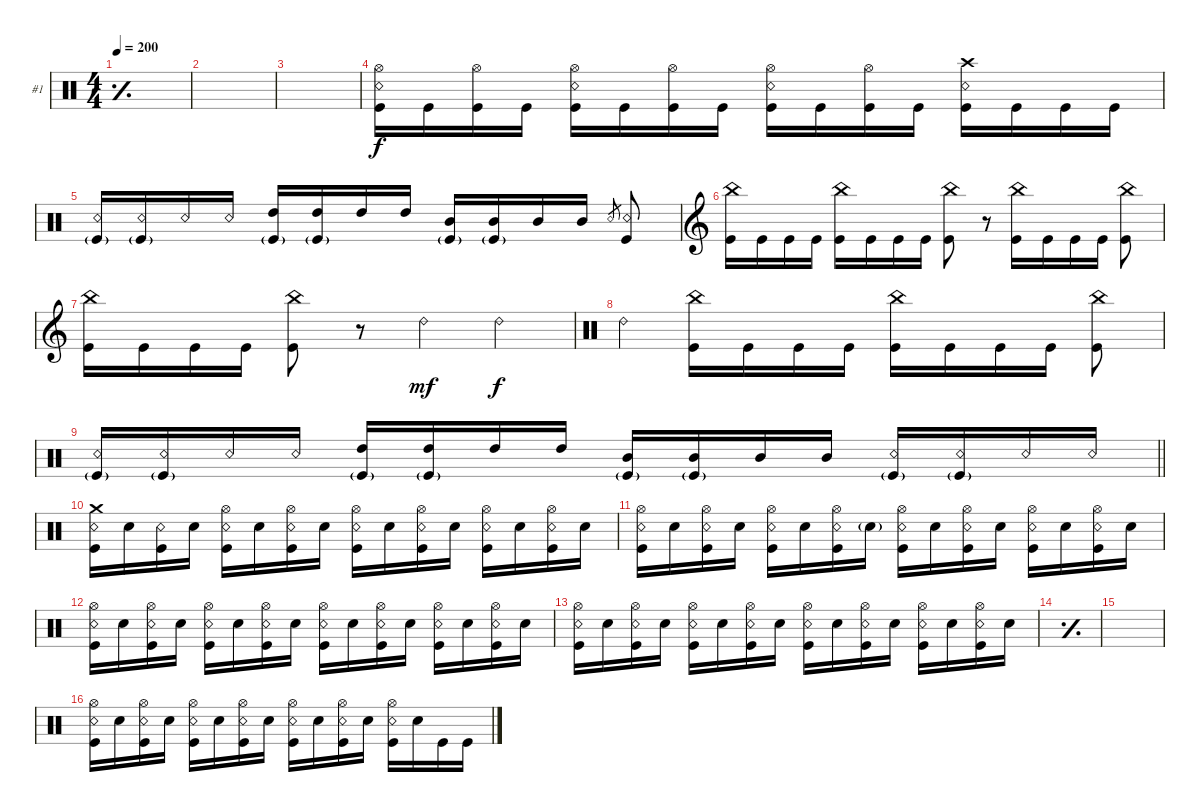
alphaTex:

\bracketExtendMode groupsimilarinstruments
\firstSystemTrackNameOrientation horizontal
\otherSystemsTrackNameOrientation horizontal
\track ("Joey Jordison" "#1") {instrument percussion}
\staff {score}
\articulation defaults
\ts (4 4)
\tempo 200
\clef neutral
\simile simple
\ks c
|
|
|
("Kick (hit)" "Snare (rim shot)" "Hi-Hat (open)").16 "Kick (hit)".16 ("Kick (hit)" "Hi-Hat (open)").16 "Kick (hit)".16 ("Kick (hit)" "Snare (rim shot)" "Hi-Hat (open)").16 "Kick (hit)".16 ("Kick (hit)" "Hi-Hat (open)").16 "Kick (hit)".16 ("Kick (hit)" "Snare (rim shot)" "Hi-Hat (open)").16 "Kick (hit)".16 ("Kick (hit)" "Hi-Hat (open)").16 "Kick (hit)".16 ("Kick (hit)" "Snare (rim shot)" "Crash high (hit)").16 "Kick (hit)".16 "Kick (hit)".16 "Kick (hit)".16 |
("Snare (rim shot)" "Kick (hit)"{g}).16 ("Snare (rim shot)" "Kick (hit)"{g}).16 "Snare (rim shot)".16 "Snare (rim shot)".16 ("High Tom (hit)" "Kick (hit)"{g}).16 ("High Tom (hit)" "Kick (hit)"{g}).16 "High Tom (hit)".16 "High Tom (hit)".16 ("Mid Tom (hit)" "Kick (hit)"{g}).16 ("Mid Tom (hit)" "Kick (hit)"{g}).16 "Mid Tom (hit)".16 "Mid Tom (hit)".16 "Snare (rim shot)".8{gr} ("Snare (rim shot)" "Kick (hit)").8 |
\clef g2
("Kick (hit)" "China (hit)").16 "Kick (hit)".16 "Kick (hit)".16 "Kick (hit)".16 ("Kick (hit)" "China (hit)").16 "Kick (hit)".16 "Kick (hit)".16 "Kick (hit)".16 ("Kick (hit)" "China (hit)").8 r.8 ("Kick (hit)" "China (hit)").16 "Kick (hit)".16 "Kick (hit)".16 "Kick (hit)".16 ("Kick (hit)" "China (hit)").8 |
("Kick (hit)" "China (hit)").16 "Kick (hit)".16 "Kick (hit)".16 "Kick (hit)".16 ("Kick (hit)" "China (hit)").8 r.8 "Ride (bell) 2".4{dy mf} "Ride (bell) 2".4{dy f} |
\clef neutral "Ride (bell) 2".4
("Kick (hit)" "China (hit)").16 "Kick (hit)".16 "Kick (hit)".16 "Kick (hit)".16 ("Kick (hit)" "China (hit)").16 "Kick (hit)".16 "Kick (hit)".16 "Kick (hit)".16 ("Kick (hit)" "China (hit)").8 |
\barLineRight lightlight
("Snare (rim shot)" "Kick (hit)"{g}).16 ("Snare (rim shot)" "Kick (hit)"{g}).16 "Snare (rim shot)".16 "Snare (rim shot)".16 ("High Tom (hit)" "Kick (hit)"{g}).16 ("High Tom (hit)" "Kick (hit)"{g}).16 "High Tom (hit)".16 "High Tom (hit)".16 ("Mid Tom (hit)" "Kick (hit)"{g}).16 ("Mid Tom (hit)" "Kick (hit)"{g}).16 "Mid Tom (hit)".16 "Mid Tom (hit)".16 ("Snare (rim shot)" "Kick (hit)"{g}).16 ("Snare (rim shot)" "Kick (hit)"{g}).16 "Snare (rim shot)".16 "Snare (rim shot)".16 |
("Crash medium (hit)" "Snare (rim shot)" "Kick (hit)").16 "Snare (hit) 2".16 ("Kick (hit)" "Snare (rim shot)").16 "Snare (hit) 2".16 ("Snare (rim shot)" "Kick (hit)" "Hi-Hat (open)").16 "Snare (hit) 2".16 ("Snare (rim shot)" "Kick (hit)" "Hi-Hat (open)").16 "Snare (hit) 2".16 ("Snare (rim shot)" "Kick (hit)" "Hi-Hat (open)").16 "Snare (hit) 2".16 ("Snare (rim shot)" "Kick (hit)" "Hi-Hat (open)").16 "Snare (hit) 2".16 ("Snare (rim shot)" "Kick (hit)" "Hi-Hat (open)").16 "Snare (hit) 2".16 ("Snare (rim shot)" "Kick (hit)" "Hi-Hat (open)").16 "Snare (hit) 2".16 |
("Snare (rim shot)" "Kick (hit)" "Hi-Hat (open)").16 "Snare (hit) 2".16 ("Snare (rim shot)" "Kick (hit)" "Hi-Hat (open)").16 "Snare (hit) 2".16 ("Snare (rim shot)" "Kick (hit)" "Hi-Hat (open)").16 "Snare (hit) 2".16 ("Snare (rim shot)" "Kick (hit)" "Hi-Hat (open)").16 "Snare (hit) 2"{g}.16 ("Snare (rim shot)" "Kick (hit)" "Hi-Hat (open)").16 "Snare (hit) 2".16 ("Snare (rim shot)" "Kick (hit)" "Hi-Hat (open)").16 "Snare (hit) 2".16 ("Snare (rim shot)" "Kick (hit)" "Hi-Hat (open)").16 "Snare (hit) 2".16 ("Snare (rim shot)" "Kick (hit)" "Hi-Hat (open)").16 "Snare (hit) 2".16 |
("Snare (rim shot)" "Kick (hit)" "Hi-Hat (open)").16 "Snare (hit) 2".16 ("Snare (rim shot)" "Kick (hit)" "Hi-Hat (open)").16 "Snare (hit) 2".16 ("Snare (rim shot)" "Kick (hit)" "Hi-Hat (open)").16 "Snare (hit) 2".16 ("Snare (rim shot)" "Kick (hit)" "Hi-Hat (open)").16 "Snare (hit) 2".16 ("Snare (rim shot)" "Kick (hit)" "Hi-Hat (open)").16 "Snare (hit) 2".16 ("Snare (rim shot)" "Kick (hit)" "Hi-Hat (open)").16 "Snare (hit) 2".16 ("Snare (rim shot)" "Kick (hit)" "Hi-Hat (open)").16 "Snare (hit) 2".16 ("Snare (rim shot)" "Kick (hit)" "Hi-Hat (open)").16 "Snare (hit) 2".16 |
("Snare (rim shot)" "Kick (hit)" "Hi-Hat (open)").16 "Snare (hit) 2".16 ("Snare (rim shot)" "Kick (hit)" "Hi-Hat (open)").16 "Snare (hit) 2".16 ("Snare (rim shot)" "Kick (hit)" "Hi-Hat (open)").16 "Snare (hit) 2".16 ("Snare (rim shot)" "Kick (hit)" "Hi-Hat (open)").16 "Snare (hit) 2".16 ("Snare (rim shot)" "Kick (hit)" "Hi-Hat (open)").16 "Snare (hit) 2".16 ("Snare (rim shot)" "Kick (hit)" "Hi-Hat (open)").16 "Snare (hit) 2".16 ("Snare (rim shot)" "Kick (hit)" "Hi-Hat (open)").16 "Snare (hit) 2".16 ("Snare (rim shot)" "Kick (hit)" "Hi-Hat (open)").16 "Snare (hit) 2".16 |
\simile simple
|
|
\simile none
("Snare (rim shot)" "Kick (hit)" "Hi-Hat (open)").16 "Snare (hit) 2".16 ("Snare (rim shot)" "Kick (hit)" "Hi-Hat (open)").16 "Snare (hit) 2".16 ("Snare (rim shot)" "Kick (hit)" "Hi-Hat (open)").16 "Snare (hit) 2".16 ("Snare (rim shot)" "Kick (hit)" "Hi-Hat (open)").16 "Snare (hit) 2".16 ("Snare (rim shot)" "Kick (hit)" "Hi-Hat (open)").16 "Snare (hit) 2".16 ("Snare (rim shot)" "Kick (hit)" "Hi-Hat (open)").16 "Snare (hit) 2".16 ("Snare (rim shot)" "Kick (hit)" "Hi-Hat (open)").16 "Snare (hit) 2".16 "Kick (hit)".16 "Kick (hit)".16
